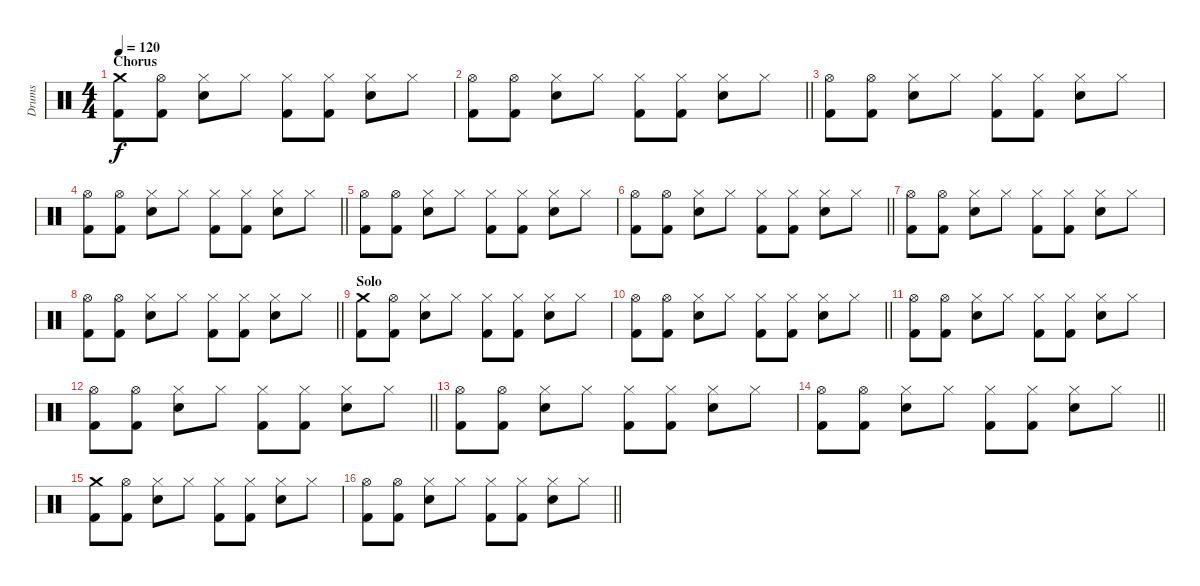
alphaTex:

\track ("Drums" "Drums") {instrument percussion}
\staff {score}
\articulation defaults
\ts (4 4)
\section ("" "Chorus")
\tempo 120
\clef neutral
\ks c
("Crash medium (hit)" "Kick (hit) 2").8{dy f} ("Hi-Hat (open)" "Kick (hit) 2").8 ("Hi-Hat (closed)" "Electric Snare (hit)").8 "Hi-Hat (closed)".8 ("Hi-Hat (closed)" "Kick (hit) 2").8 ("Hi-Hat (closed)" "Kick (hit) 2").8 ("Hi-Hat (closed)" "Electric Snare (hit)").8 "Hi-Hat (closed)".8 |
\barLineRight lightlight
("Hi-Hat (open)" "Kick (hit) 2").8 ("Hi-Hat (open)" "Kick (hit) 2").8 ("Hi-Hat (closed)" "Electric Snare (hit)").8 "Hi-Hat (closed)".8 ("Hi-Hat (closed)" "Kick (hit) 2").8 ("Hi-Hat (closed)" "Kick (hit) 2").8 ("Hi-Hat (closed)" "Electric Snare (hit)").8 "Hi-Hat (closed)".8 |
("Hi-Hat (open)" "Kick (hit) 2").8 ("Hi-Hat (open)" "Kick (hit) 2").8 ("Hi-Hat (closed)" "Electric Snare (hit)").8 "Hi-Hat (closed)".8 ("Hi-Hat (closed)" "Kick (hit) 2").8 ("Hi-Hat (closed)" "Kick (hit) 2").8 ("Hi-Hat (closed)" "Electric Snare (hit)").8 "Hi-Hat (closed)".8 |
\barLineRight lightlight
("Hi-Hat (open)" "Kick (hit) 2").8 ("Hi-Hat (open)" "Kick (hit) 2").8 ("Hi-Hat (closed)" "Electric Snare (hit)").8 "Hi-Hat (closed)".8 ("Hi-Hat (closed)" "Kick (hit) 2").8 ("Hi-Hat (closed)" "Kick (hit) 2").8 ("Hi-Hat (closed)" "Electric Snare (hit)").8 "Hi-Hat (closed)".8 |
("Hi-Hat (open)" "Kick (hit) 2").8 ("Hi-Hat (open)" "Kick (hit) 2").8 ("Hi-Hat (closed)" "Electric Snare (hit)").8 "Hi-Hat (closed)".8 ("Hi-Hat (closed)" "Kick (hit) 2").8 ("Hi-Hat (closed)" "Kick (hit) 2").8 ("Hi-Hat (closed)" "Electric Snare (hit)").8 "Hi-Hat (closed)".8 |
\barLineRight lightlight
("Hi-Hat (open)" "Kick (hit) 2").8 ("Hi-Hat (open)" "Kick (hit) 2").8 ("Hi-Hat (closed)" "Electric Snare (hit)").8 "Hi-Hat (closed)".8 ("Hi-Hat (closed)" "Kick (hit) 2").8 ("Hi-Hat (closed)" "Kick (hit) 2").8 ("Hi-Hat (closed)" "Electric Snare (hit)").8 "Hi-Hat (closed)".8 |
("Hi-Hat (open)" "Kick (hit) 2").8 ("Hi-Hat (open)" "Kick (hit) 2").8 ("Hi-Hat (closed)" "Electric Snare (hit)").8 "Hi-Hat (closed)".8 ("Hi-Hat (closed)" "Kick (hit) 2").8 ("Hi-Hat (closed)" "Kick (hit) 2").8 ("Hi-Hat (closed)" "Electric Snare (hit)").8 "Hi-Hat (closed)".8 |
\barLineRight lightlight
("Hi-Hat (open)" "Kick (hit) 2").8 ("Hi-Hat (open)" "Kick (hit) 2").8 ("Hi-Hat (closed)" "Electric Snare (hit)").8 "Hi-Hat (closed)".8 ("Hi-Hat (closed)" "Kick (hit) 2").8 ("Hi-Hat (closed)" "Kick (hit) 2").8 ("Hi-Hat (closed)" "Electric Snare (hit)").8 "Hi-Hat (closed)".8 |
\section ("" "Solo")
("Crash medium (hit)" "Kick (hit) 2").8 ("Hi-Hat (open)" "Kick (hit) 2").8 ("Hi-Hat (closed)" "Electric Snare (hit)").8 "Hi-Hat (closed)".8 ("Hi-Hat (closed)" "Kick (hit) 2").8 ("Hi-Hat (closed)" "Kick (hit) 2").8 ("Hi-Hat (closed)" "Electric Snare (hit)").8 "Hi-Hat (closed)".8 |
\barLineRight lightlight
("Hi-Hat (open)" "Kick (hit) 2").8 ("Hi-Hat (open)" "Kick (hit) 2").8 ("Hi-Hat (closed)" "Electric Snare (hit)").8 "Hi-Hat (closed)".8 ("Hi-Hat (closed)" "Kick (hit) 2").8 ("Hi-Hat (closed)" "Kick (hit) 2").8 ("Hi-Hat (closed)" "Electric Snare (hit)").8 "Hi-Hat (closed)".8 |
("Hi-Hat (open)" "Kick (hit) 2").8 ("Hi-Hat (open)" "Kick (hit) 2").8 ("Hi-Hat (closed)" "Electric Snare (hit)").8 "Hi-Hat (closed)".8 ("Hi-Hat (closed)" "Kick (hit) 2").8 ("Hi-Hat (closed)" "Kick (hit) 2").8 ("Hi-Hat (closed)" "Electric Snare (hit)").8 "Hi-Hat (closed)".8 |
\barLineRight lightlight
("Hi-Hat (open)" "Kick (hit) 2").8 ("Hi-Hat (open)" "Kick (hit) 2").8 ("Hi-Hat (closed)" "Electric Snare (hit)").8 "Hi-Hat (closed)".8 ("Hi-Hat (closed)" "Kick (hit) 2").8 ("Hi-Hat (closed)" "Kick (hit) 2").8 ("Hi-Hat (closed)" "Electric Snare (hit)").8 "Hi-Hat (closed)".8 |
("Hi-Hat (open)" "Kick (hit) 2").8 ("Hi-Hat (open)" "Kick (hit) 2").8 ("Hi-Hat (closed)" "Electric Snare (hit)").8 "Hi-Hat (closed)".8 ("Hi-Hat (closed)" "Kick (hit) 2").8 ("Hi-Hat (closed)" "Kick (hit) 2").8 ("Hi-Hat (closed)" "Electric Snare (hit)").8 "Hi-Hat (closed)".8 |
\barLineRight lightlight
("Hi-Hat (open)" "Kick (hit) 2").8 ("Hi-Hat (open)" "Kick (hit) 2").8 ("Hi-Hat (closed)" "Electric Snare (hit)").8 "Hi-Hat (closed)".8 ("Hi-Hat (closed)" "Kick (hit) 2").8 ("Hi-Hat (closed)" "Kick (hit) 2").8 ("Hi-Hat (closed)" "Electric Snare (hit)").8 "Hi-Hat (closed)".8 |
("Crash medium (hit)" "Kick (hit) 2").8 ("Hi-Hat (open)" "Kick (hit) 2").8 ("Hi-Hat (closed)" "Electric Snare (hit)").8 "Hi-Hat (closed)".8 ("Hi-Hat (closed)" "Kick (hit) 2").8 ("Hi-Hat (closed)" "Kick (hit) 2").8 ("Hi-Hat (closed)" "Electric Snare (hit)").8 "Hi-Hat (closed)".8 |
\barLineRight lightlight
("Hi-Hat (open)" "Kick (hit) 2").8 ("Hi-Hat (open)" "Kick (hit) 2").8 ("Hi-Hat (closed)" "Electric Snare (hit)").8 "Hi-Hat (closed)".8 ("Hi-Hat (closed)" "Kick (hit) 2").8 ("Hi-Hat (closed)" "Kick (hit) 2").8 ("Hi-Hat (closed)" "Electric Snare (hit)").8 "Hi-Hat (closed)".8
